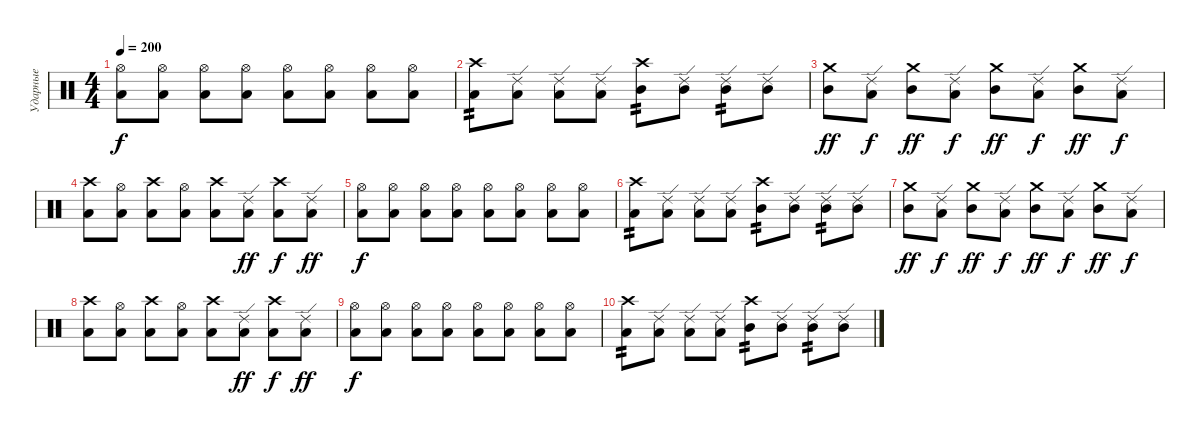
\track ("Ударные" "Ударные") {instrument percussion}
\staff {score}
\articulation defaults
\ts (4 4)
\tempo 200
\clef neutral
\ks c
("Hi-Hat (open)" "Low Tom (hit)").8{dy f} ("Hi-Hat (open)" "Low Tom (hit)").8 ("Hi-Hat (open)" "Low Tom (hit)").8 ("Hi-Hat (open)" "Low Tom (hit)").8 ("Hi-Hat (open)" "Low Tom (hit)").8 ("Hi-Hat (open)" "Low Tom (hit)").8 ("Hi-Hat (open)" "Low Tom (hit)").8 ("Hi-Hat (open)" "Low Tom (hit)").8 |
("Crash high (hit)" "Low Tom (hit)").8{tp 2} ("Ride (edge) 2" "Low Tom (hit)").8 ("Ride (edge) 2" "Low Tom (hit)").8 ("Ride (edge) 2" "Low Tom (hit)").8 ("Crash high (hit)" "Mid Tom (hit)").8{tp 2} ("Ride (edge) 2" "Mid Tom (hit)").8 ("Ride (edge) 2" "Mid Tom (hit)").8{tp 2} ("Ride (edge) 2" "Mid Tom (hit)").8 |
("Crash medium (hit)" "Mid Tom (hit)").8{dy ff} ("Ride (edge) 2" "Low Tom (hit)").8{dy f} ("Crash medium (hit)" "Mid Tom (hit)").8{dy ff} ("Ride (edge) 2" "Low Tom (hit)").8{dy f} ("Crash medium (hit)" "Mid Tom (hit)").8{dy ff} ("Ride (edge) 2" "Low Tom (hit)").8{dy f} ("Crash medium (hit)" "Mid Tom (hit)").8{dy ff} ("Ride (edge) 2" "Low Tom (hit)").8{dy f} |
("Crash high (hit)" "Low Tom (hit)").8 ("Hi-Hat (open)" "Low Floor Tom (hit)").8 ("Crash high (hit)" "Low Tom (hit)").8 ("Hi-Hat (open)" "Low Floor Tom (hit)").8 ("Crash high (hit)" "Low Tom (hit)").8 ("Ride (edge) 2" "Low Floor Tom (hit)").8{dy ff} ("Crash high (hit)" "Low Tom (hit)").8{dy f} ("Ride (edge) 2" "Low Floor Tom (hit)").8{dy ff} |
("Hi-Hat (open)" "Low Tom (hit)").8{dy f} ("Hi-Hat (open)" "Low Tom (hit)").8 ("Hi-Hat (open)" "Low Tom (hit)").8 ("Hi-Hat (open)" "Low Tom (hit)").8 ("Hi-Hat (open)" "Low Tom (hit)").8 ("Hi-Hat (open)" "Low Tom (hit)").8 ("Hi-Hat (open)" "Low Tom (hit)").8 ("Hi-Hat (open)" "Low Tom (hit)").8 |
("Crash high (hit)" "Low Tom (hit)").8{tp 2} ("Ride (edge) 2" "Low Tom (hit)").8 ("Ride (edge) 2" "Low Tom (hit)").8 ("Ride (edge) 2" "Low Tom (hit)").8 ("Crash high (hit)" "Mid Tom (hit)").8{tp 2} ("Ride (edge) 2" "Mid Tom (hit)").8 ("Ride (edge) 2" "Mid Tom (hit)").8{tp 2} ("Ride (edge) 2" "Mid Tom (hit)").8 |
("Crash medium (hit)" "Mid Tom (hit)").8{dy ff} ("Ride (edge) 2" "Low Tom (hit)").8{dy f} ("Crash medium (hit)" "Mid Tom (hit)").8{dy ff} ("Ride (edge) 2" "Low Tom (hit)").8{dy f} ("Crash medium (hit)" "Mid Tom (hit)").8{dy ff} ("Ride (edge) 2" "Low Tom (hit)").8{dy f} ("Crash medium (hit)" "Mid Tom (hit)").8{dy ff} ("Ride (edge) 2" "Low Tom (hit)").8{dy f} |
("Crash high (hit)" "Low Tom (hit)").8 ("Hi-Hat (open)" "Low Floor Tom (hit)").8 ("Crash high (hit)" "Low Tom (hit)").8 ("Hi-Hat (open)" "Low Floor Tom (hit)").8 ("Crash high (hit)" "Low Tom (hit)").8 ("Ride (edge) 2" "Low Floor Tom (hit)").8{dy ff} ("Crash high (hit)" "Low Tom (hit)").8{dy f} ("Ride (edge) 2" "Low Floor Tom (hit)").8{dy ff} |
("Hi-Hat (open)" "Low Tom (hit)").8{dy f} ("Hi-Hat (open)" "Low Tom (hit)").8 ("Hi-Hat (open)" "Low Tom (hit)").8 ("Hi-Hat (open)" "Low Tom (hit)").8 ("Hi-Hat (open)" "Low Tom (hit)").8 ("Hi-Hat (open)" "Low Tom (hit)").8 ("Hi-Hat (open)" "Low Tom (hit)").8 ("Hi-Hat (open)" "Low Tom (hit)").8 |
("Crash high (hit)" "Low Tom (hit)").8{tp 2} ("Ride (edge) 2" "Low Tom (hit)").8 ("Ride (edge) 2" "Low Tom (hit)").8 ("Ride (edge) 2" "Low Tom (hit)").8 ("Crash high (hit)" "Mid Tom (hit)").8{tp 2} ("Ride (edge) 2" "Mid Tom (hit)").8 ("Ride (edge) 2" "Mid Tom (hit)").8{tp 2} ("Ride (edge) 2" "Mid Tom (hit)").8
